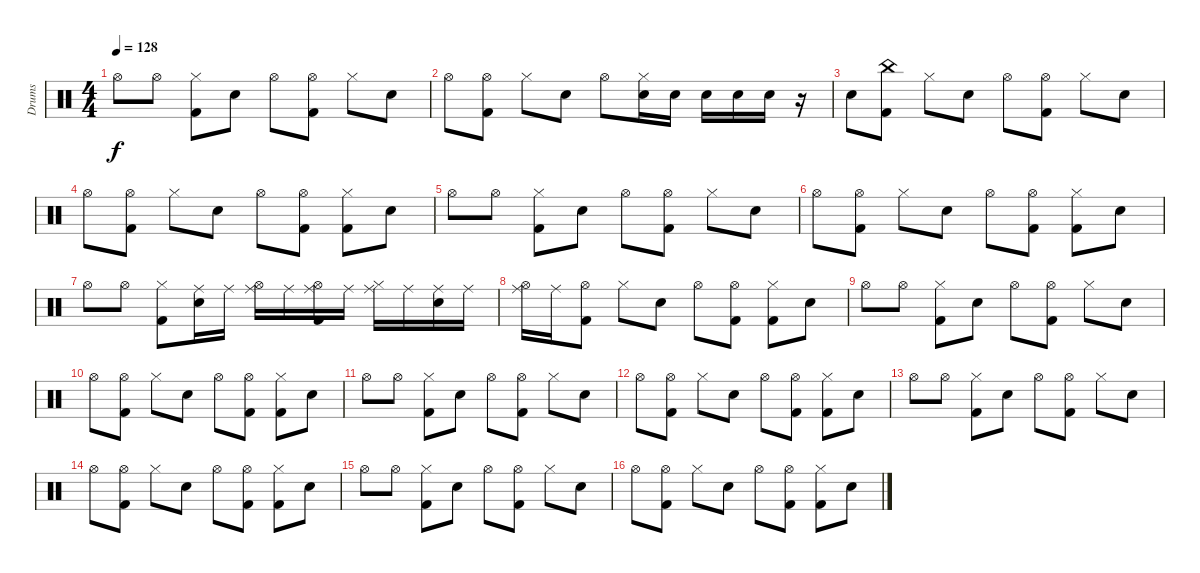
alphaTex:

\track ("Drums" "Drums") {instrument percussion}
\staff {score}
\articulation defaults
\ts (4 4)
\tempo 128
\clef neutral
\ks c "Hi-Hat (open)".8{dy f} "Hi-Hat (open)".8
("Hi-Hat (closed)" "Kick (hit) 2").8 "Snare (hit) 2".8 "Hi-Hat (open)".8 ("Hi-Hat (open)" "Kick (hit) 2").8 "Hi-Hat (closed)".8 "Snare (hit) 2".8 |
"Hi-Hat (open)".8 ("Hi-Hat (open)" "Kick (hit) 2").8 "Hi-Hat (closed)".8 "Snare (hit) 2".8 "Hi-Hat (open)".8 ("Hi-Hat (closed)" "Snare (hit) 2").16 "Snare (hit) 2".16 "Snare (hit) 2".16 "Snare (hit) 2".16 "Snare (hit) 2".16 r.16 |
"Snare (hit) 2".8 ("China (hit)" "Kick (hit) 2").8 "Hi-Hat (closed)".8 "Snare (hit) 2".8 "Hi-Hat (open)".8 ("Hi-Hat (open)" "Kick (hit) 2").8 "Hi-Hat (closed)".8 "Snare (hit) 2".8 |
"Hi-Hat (open)".8 ("Hi-Hat (open)" "Kick (hit) 2").8 "Hi-Hat (closed)".8 "Snare (hit) 2".8 "Hi-Hat (open)".8 ("Hi-Hat (open)" "Kick (hit) 2").8 ("Hi-Hat (closed)" "Kick (hit) 2").8 "Snare (hit) 2".8 |
"Hi-Hat (open)".8 "Hi-Hat (open)".8 ("Hi-Hat (closed)" "Kick (hit) 2").8 "Snare (hit) 2".8 "Hi-Hat (open)".8 ("Hi-Hat (open)" "Kick (hit) 2").8 "Hi-Hat (closed)".8 "Snare (hit) 2".8 |
"Hi-Hat (open)".8 ("Hi-Hat (open)" "Kick (hit) 2").8 "Hi-Hat (closed)".8 "Snare (hit) 2".8 "Hi-Hat (open)".8 ("Hi-Hat (open)" "Kick (hit) 2").8 ("Hi-Hat (closed)" "Kick (hit) 2").8 "Snare (hit) 2".8 |
"Hi-Hat (open)".8 "Hi-Hat (open)".8 ("Hi-Hat (closed)" "Kick (hit) 2").8 ("Ride (middle)" "Snare (hit) 2").16 "Ride (middle)".16 ("Hi-Hat (open)" "Ride (middle)").16 "Ride (middle)".16 ("Hi-Hat (open)" "Ride (middle)" "Kick (hit) 2").16 "Ride (middle)".16 ("Hi-Hat (closed)" "Ride (middle)").16 "Ride (middle)".16 ("Ride (middle)" "Snare (hit) 2").16 "Ride (middle)".16 |
("Hi-Hat (open)" "Ride (middle)").16 "Ride (middle)".16 ("Hi-Hat (open)" "Kick (hit) 2").8 "Hi-Hat (closed)".8 "Snare (hit) 2".8 "Hi-Hat (open)".8 ("Hi-Hat (open)" "Kick (hit) 2").8 ("Hi-Hat (closed)" "Kick (hit) 2").8 "Snare (hit) 2".8 |
"Hi-Hat (open)".8 "Hi-Hat (open)".8 ("Hi-Hat (closed)" "Kick (hit) 2").8 "Snare (hit) 2".8 "Hi-Hat (open)".8 ("Hi-Hat (open)" "Kick (hit) 2").8 "Hi-Hat (closed)".8 "Snare (hit) 2".8 |
"Hi-Hat (open)".8 ("Hi-Hat (open)" "Kick (hit) 2").8 "Hi-Hat (closed)".8 "Snare (hit) 2".8 "Hi-Hat (open)".8 ("Hi-Hat (open)" "Kick (hit) 2").8 ("Hi-Hat (closed)" "Kick (hit) 2").8 "Snare (hit) 2".8 |
"Hi-Hat (open)".8 "Hi-Hat (open)".8 ("Hi-Hat (closed)" "Kick (hit) 2").8 "Snare (hit) 2".8 "Hi-Hat (open)".8 ("Hi-Hat (open)" "Kick (hit) 2").8 "Hi-Hat (closed)".8 "Snare (hit) 2".8 |
"Hi-Hat (open)".8 ("Hi-Hat (open)" "Kick (hit) 2").8 "Hi-Hat (closed)".8 "Snare (hit) 2".8 "Hi-Hat (open)".8 ("Hi-Hat (open)" "Kick (hit) 2").8 ("Hi-Hat (closed)" "Kick (hit) 2").8 "Snare (hit) 2".8 |
"Hi-Hat (open)".8 "Hi-Hat (open)".8 ("Hi-Hat (closed)" "Kick (hit) 2").8 "Snare (hit) 2".8 "Hi-Hat (open)".8 ("Hi-Hat (open)" "Kick (hit) 2").8 "Hi-Hat (closed)".8 "Snare (hit) 2".8 |
"Hi-Hat (open)".8 ("Hi-Hat (open)" "Kick (hit) 2").8 "Hi-Hat (closed)".8 "Snare (hit) 2".8 "Hi-Hat (open)".8 ("Hi-Hat (open)" "Kick (hit) 2").8 ("Hi-Hat (closed)" "Kick (hit) 2").8 "Snare (hit) 2".8 |
"Hi-Hat (open)".8 "Hi-Hat (open)".8 ("Hi-Hat (closed)" "Kick (hit) 2").8 "Snare (hit) 2".8 "Hi-Hat (open)".8 ("Hi-Hat (open)" "Kick (hit) 2").8 "Hi-Hat (closed)".8 "Snare (hit) 2".8 |
"Hi-Hat (open)".8 ("Hi-Hat (open)" "Kick (hit) 2").8 "Hi-Hat (closed)".8 "Snare (hit) 2".8 "Hi-Hat (open)".8 ("Hi-Hat (open)" "Kick (hit) 2").8 ("Hi-Hat (closed)" "Kick (hit) 2").8 "Snare (hit) 2".8
